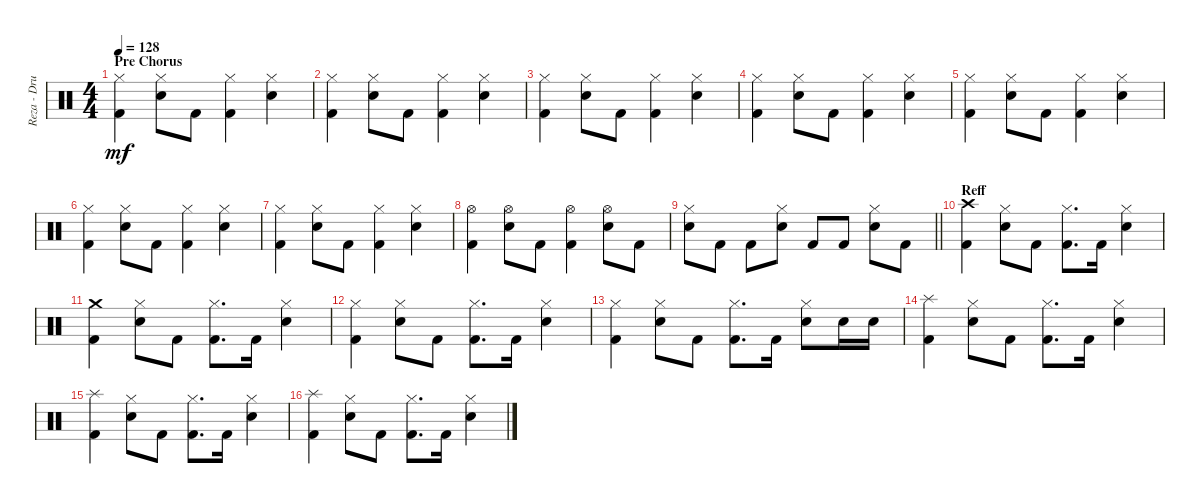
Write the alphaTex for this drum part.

\track ("Reza - Drum" "Reza - Dru") {instrument percussion}
\staff {score}
\articulation defaults
\ts (4 4)
\section ("" "Pre Chorus")
\tempo 128
\clef neutral
\ks c
("Hi-Hat (closed)" "Kick (hit) 2").4{dy mf} ("Hi-Hat (closed)" "Electric Snare (hit)").8 "Kick (hit) 2".8 ("Hi-Hat (closed)" "Kick (hit) 2").4 ("Hi-Hat (closed)" "Electric Snare (hit)").4 |
("Hi-Hat (closed)" "Kick (hit) 2").4 ("Hi-Hat (closed)" "Electric Snare (hit)").8 "Kick (hit) 2".8 ("Hi-Hat (closed)" "Kick (hit) 2").4 ("Hi-Hat (closed)" "Electric Snare (hit)").4 |
("Hi-Hat (closed)" "Kick (hit) 2").4 ("Hi-Hat (closed)" "Electric Snare (hit)").8 "Kick (hit) 2".8 ("Hi-Hat (closed)" "Kick (hit) 2").4 ("Hi-Hat (closed)" "Electric Snare (hit)").4 |
("Hi-Hat (closed)" "Kick (hit) 2").4 ("Hi-Hat (closed)" "Electric Snare (hit)").8 "Kick (hit) 2".8 ("Hi-Hat (closed)" "Kick (hit) 2").4 ("Hi-Hat (closed)" "Electric Snare (hit)").4 |
("Hi-Hat (closed)" "Kick (hit) 2").4 ("Hi-Hat (closed)" "Electric Snare (hit)").8 "Kick (hit) 2".8 ("Hi-Hat (closed)" "Kick (hit) 2").4 ("Hi-Hat (closed)" "Electric Snare (hit)").4 |
("Hi-Hat (closed)" "Kick (hit) 2").4 ("Hi-Hat (closed)" "Electric Snare (hit)").8 "Kick (hit) 2".8 ("Hi-Hat (closed)" "Kick (hit) 2").4 ("Hi-Hat (closed)" "Electric Snare (hit)").4 |
("Hi-Hat (closed)" "Kick (hit) 2").4 ("Hi-Hat (closed)" "Electric Snare (hit)").8 "Kick (hit) 2".8 ("Hi-Hat (closed)" "Kick (hit) 2").4 ("Hi-Hat (closed)" "Electric Snare (hit)").4 |
("Hi-Hat (open)" "Kick (hit) 2").4 ("Hi-Hat (open)" "Electric Snare (hit)").8 "Kick (hit) 2".8 ("Hi-Hat (open)" "Kick (hit) 2").4 ("Hi-Hat (open)" "Electric Snare (hit)").8 "Kick (hit) 2".8 |
\barLineRight lightlight
("Hi-Hat (closed)" "Electric Snare (hit)").8 "Kick (hit) 2".8 "Kick (hit) 2".8 ("Hi-Hat (closed)" "Electric Snare (hit)").8 "Kick (hit) 2".8 "Kick (hit) 2".8 ("Hi-Hat (closed)" "Electric Snare (hit)").8 "Kick (hit) 2".8 |
\section ("" "Reff")
("Crash high (hit)" "Kick (hit) 2").4 ("Hi-Hat (closed)" "Electric Snare (hit)").8 "Kick (hit) 2".8 ("Hi-Hat (closed)" "Kick (hit) 2").8{d} "Kick (hit) 2".16 ("Hi-Hat (closed)" "Electric Snare (hit)").4 |
("Crash medium (hit)" "Kick (hit) 2").4 ("Hi-Hat (closed)" "Electric Snare (hit)").8 "Kick (hit) 2".8 ("Hi-Hat (closed)" "Kick (hit) 2").8{d} "Kick (hit) 2".16 ("Hi-Hat (closed)" "Electric Snare (hit)").4 |
("Hi-Hat (closed)" "Kick (hit) 2").4 ("Hi-Hat (closed)" "Electric Snare (hit)").8 "Kick (hit) 2".8 ("Hi-Hat (closed)" "Kick (hit) 2").8{d} "Kick (hit) 2".16 ("Hi-Hat (closed)" "Electric Snare (hit)").4 |
("Hi-Hat (closed)" "Kick (hit) 2").4 ("Hi-Hat (closed)" "Electric Snare (hit)").8 "Kick (hit) 2".8 ("Hi-Hat (closed)" "Kick (hit) 2").8{d} "Kick (hit) 2".16 ("Hi-Hat (closed)" "Electric Snare (hit)").8 "Electric Snare (hit)".16 "Electric Snare (hit)".16 |
("Splash (hit)" "Kick (hit) 2").4 ("Hi-Hat (closed)" "Electric Snare (hit)").8 "Kick (hit) 2".8 ("Hi-Hat (closed)" "Kick (hit) 2").8{d} "Kick (hit) 2".16 ("Hi-Hat (closed)" "Electric Snare (hit)").4 |
("Splash (hit)" "Kick (hit) 2").4 ("Hi-Hat (closed)" "Electric Snare (hit)").8 "Kick (hit) 2".8 ("Hi-Hat (closed)" "Kick (hit) 2").8{d} "Kick (hit) 2".16 ("Hi-Hat (closed)" "Electric Snare (hit)").4 |
("Splash (hit)" "Kick (hit) 2").4 ("Hi-Hat (closed)" "Electric Snare (hit)").8 "Kick (hit) 2".8 ("Hi-Hat (closed)" "Kick (hit) 2").8{d} "Kick (hit) 2".16 ("Hi-Hat (closed)" "Electric Snare (hit)").4
